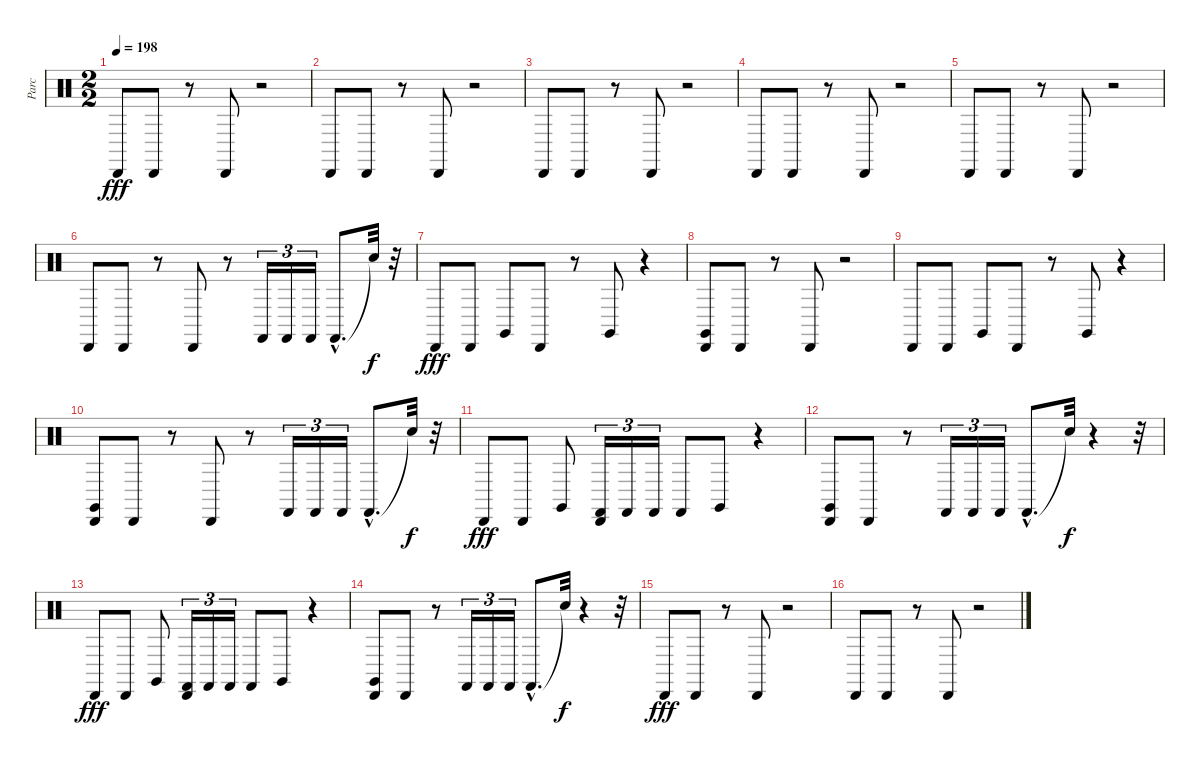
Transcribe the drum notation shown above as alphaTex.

\track ("Parc" "Parc") {instrument percussion}
\staff {score}
\articulation defaults
\ts (2 2)
\tempo 198
\clef neutral
\ks c "Cabasa (hit)".8{dy fff} "Cabasa (hit)".8
r.8 "Cabasa (hit)".8 r.2 |
"Cabasa (hit)".8 "Cabasa (hit)".8 r.8 "Cabasa (hit)".8 r.2 |
"Cabasa (hit)".8 "Cabasa (hit)".8 r.8 "Cabasa (hit)".8 r.2 |
"Cabasa (hit)".8 "Cabasa (hit)".8 r.8 "Cabasa (hit)".8 r.2 |
"Cabasa (hit)".8 "Cabasa (hit)".8 r.8 "Cabasa (hit)".8 r.2 |
"Cabasa (hit)".8 "Cabasa (hit)".8 r.8 "Cabasa (hit)".8 r.8 "Castanets (hit)".16{tu (3 2)} "Castanets (hit)".16{tu (3 2)} "Castanets (hit)".16{tu (3 2)} "Castanets (hit)"{hac}.8{d} "Snare (hit)"{t}.32{dy f} r.32 |
"Cabasa (hit)".8{dy fff} "Cabasa (hit)".8 "Claves (hit)".8 "Cabasa (hit)".8 r.8 "Claves (hit)".8 r.4 |
("Cabasa (hit)" "Claves (hit)").8 "Cabasa (hit)".8 r.8 "Cabasa (hit)".8 r.2 |
"Cabasa (hit)".8 "Cabasa (hit)".8 "Claves (hit)".8 "Cabasa (hit)".8 r.8 "Claves (hit)".8 r.4 |
("Cabasa (hit)" "Claves (hit)").8 "Cabasa (hit)".8 r.8 "Cabasa (hit)".8 r.8 "Castanets (hit)".16{tu (3 2)} "Castanets (hit)".16{tu (3 2)} "Castanets (hit)".16{tu (3 2)} "Castanets (hit)"{hac}.8{d} "Snare (hit)"{t}.32{dy f} r.32 |
"Cabasa (hit)".8{dy fff} "Cabasa (hit)".8 "Claves (hit)".8 ("Cabasa (hit)" "Castanets (hit)").16{tu (3 2)} "Castanets (hit)".16{tu (3 2)} "Castanets (hit)".16{tu (3 2)} "Castanets (hit)".8 "Claves (hit)".8 r.4 |
("Claves (hit)" "Cabasa (hit)").8 "Cabasa (hit)".8 r.8 "Castanets (hit)".16{tu (3 2)} "Castanets (hit)".16{tu (3 2)} "Castanets (hit)".16{tu (3 2)} "Castanets (hit)"{hac}.8{d} "Snare (hit)"{t}.32{dy f} r.4 r.32 |
"Cabasa (hit)".8{dy fff} "Cabasa (hit)".8 "Claves (hit)".8 ("Castanets (hit)" "Cabasa (hit)").16{tu (3 2)} "Castanets (hit)".16{tu (3 2)} "Castanets (hit)".16{tu (3 2)} "Castanets (hit)".8 "Claves (hit)".8 r.4 |
("Cabasa (hit)" "Claves (hit)").8 "Cabasa (hit)".8 r.8 "Castanets (hit)".16{tu (3 2)} "Castanets (hit)".16{tu (3 2)} "Castanets (hit)".16{tu (3 2)} "Castanets (hit)"{hac}.8{d} "Snare (hit)"{t}.32{dy f} r.4 r.32 |
"Cabasa (hit)".8{dy fff} "Cabasa (hit)".8 r.8 "Cabasa (hit)".8 r.2 |
"Cabasa (hit)".8 "Cabasa (hit)".8 r.8 "Cabasa (hit)".8 r.2
